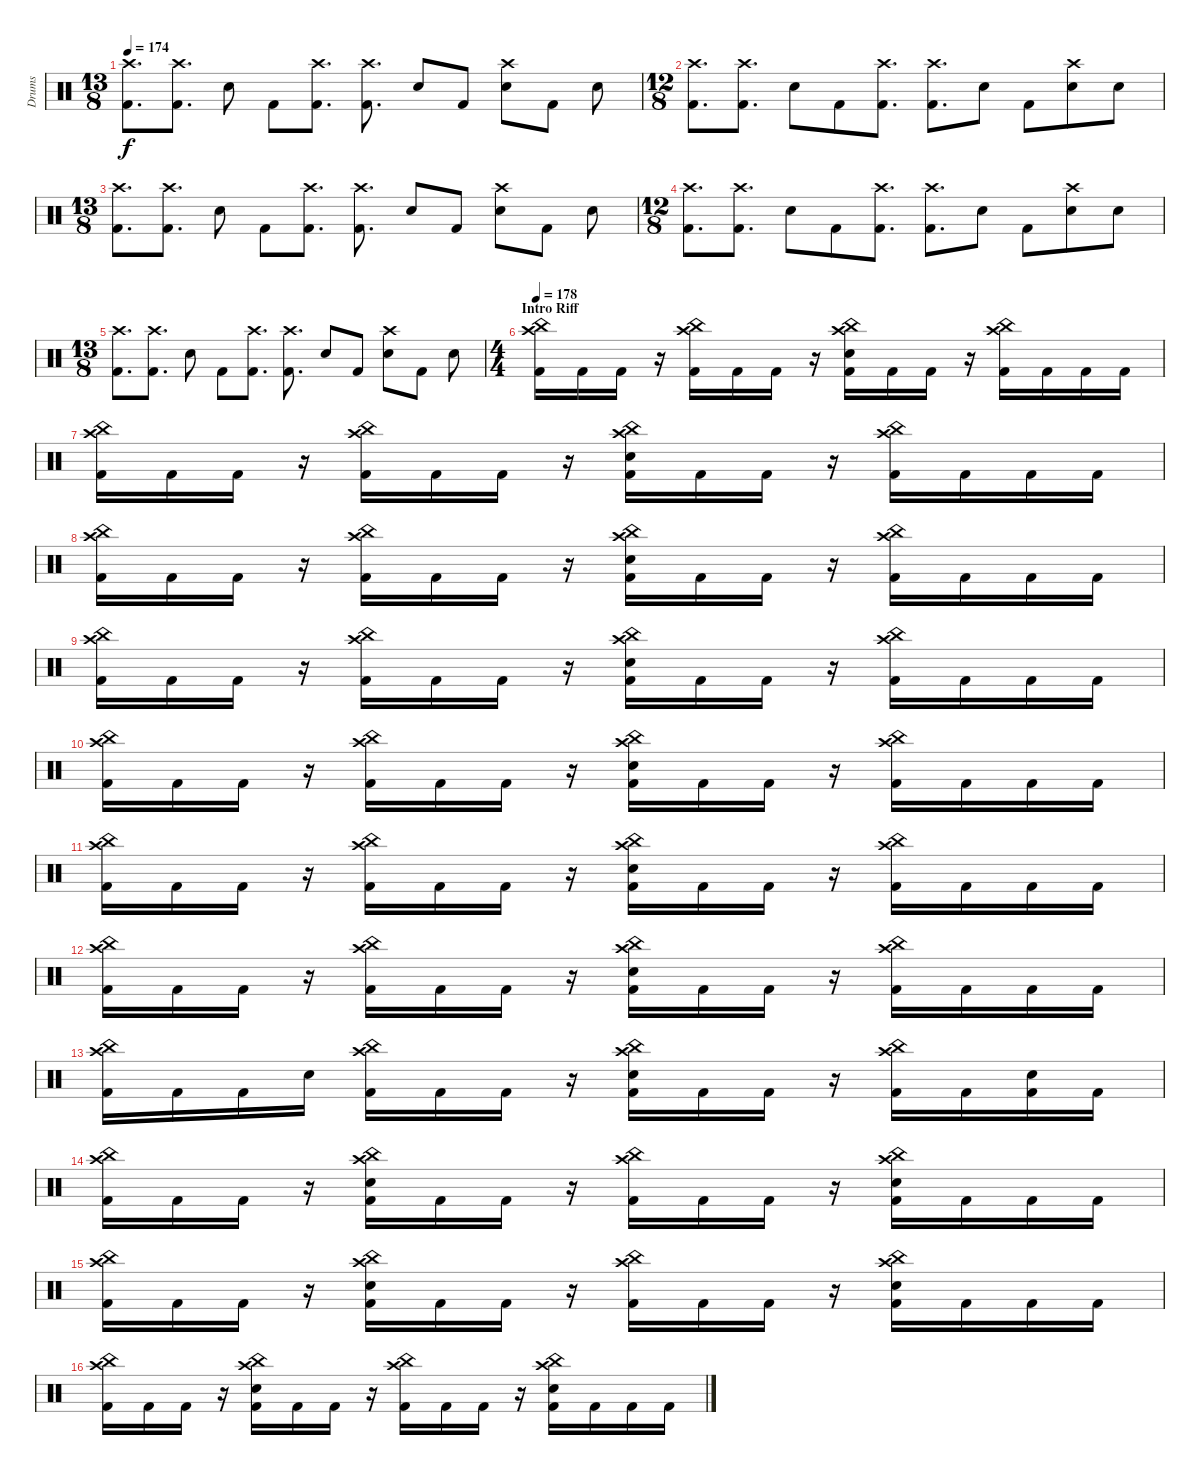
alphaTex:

\track ("Drums" "Drums") {instrument percussion}
\staff {score}
\articulation defaults
\ts (13 8)
\tempo 174
\clef neutral
\ks c
("Crash high (hit)" "Kick (hit) 2").8{d dy f} ("Crash high (hit)" "Kick (hit) 2").8{d} "Electric Snare (hit)".8 "Kick (hit) 2".8 ("Crash high (hit)" "Kick (hit) 2").8{d} ("Crash high (hit)" "Kick (hit) 2").8{d} "Electric Snare (hit)".8 "Kick (hit) 2".8 ("Crash high (hit)" "Electric Snare (hit)").8 "Kick (hit) 2".8 "Electric Snare (hit)".8 |
\ts (12 8)
("Crash high (hit)" "Kick (hit) 2").8{d} ("Crash high (hit)" "Kick (hit) 2").8{d} "Electric Snare (hit)".8 "Kick (hit) 2".8 ("Crash high (hit)" "Kick (hit) 2").8{d} ("Crash high (hit)" "Kick (hit) 2").8{d} "Electric Snare (hit)".8 "Kick (hit) 2".8 ("Crash high (hit)" "Electric Snare (hit)").8 "Electric Snare (hit)".8 |
\ts (13 8)
("Crash high (hit)" "Kick (hit) 2").8{d} ("Crash high (hit)" "Kick (hit) 2").8{d} "Electric Snare (hit)".8 "Kick (hit) 2".8 ("Crash high (hit)" "Kick (hit) 2").8{d} ("Crash high (hit)" "Kick (hit) 2").8{d} "Electric Snare (hit)".8 "Kick (hit) 2".8 ("Crash high (hit)" "Electric Snare (hit)").8 "Kick (hit) 2".8 "Electric Snare (hit)".8 |
\ts (12 8)
("Crash high (hit)" "Kick (hit) 2").8{d} ("Crash high (hit)" "Kick (hit) 2").8{d} "Electric Snare (hit)".8 "Kick (hit) 2".8 ("Crash high (hit)" "Kick (hit) 2").8{d} ("Crash high (hit)" "Kick (hit) 2").8{d} "Electric Snare (hit)".8 "Kick (hit) 2".8 ("Crash high (hit)" "Electric Snare (hit)").8 "Electric Snare (hit)".8 |
\ts (13 8)
("Crash high (hit)" "Kick (hit) 2").8{d} ("Crash high (hit)" "Kick (hit) 2").8{d} "Electric Snare (hit)".8 "Kick (hit) 2".8 ("Crash high (hit)" "Kick (hit) 2").8{d} ("Crash high (hit)" "Kick (hit) 2").8{d} "Electric Snare (hit)".8 "Kick (hit) 2".8 ("Crash high (hit)" "Electric Snare (hit)").8 "Kick (hit) 2".8 "Electric Snare (hit)".8 |
\ts (4 4)
\section ("" "Intro Riff")
\tempo 178
("China (hit)" "Crash high (hit)" "Kick (hit) 2").16 "Kick (hit) 2".16 "Kick (hit) 2".16 r.16 ("China (hit)" "Crash high (hit)" "Kick (hit) 2").16 "Kick (hit) 2".16 "Kick (hit) 2".16 r.16 ("China (hit)" "Crash high (hit)" "Electric Snare (hit)" "Kick (hit) 2").16 "Kick (hit) 2".16 "Kick (hit) 2".16 r.16 ("China (hit)" "Crash high (hit)" "Kick (hit) 2").16 "Kick (hit) 2".16 "Kick (hit) 2".16 "Kick (hit) 2".16 |
("China (hit)" "Crash high (hit)" "Kick (hit) 2").16 "Kick (hit) 2".16 "Kick (hit) 2".16 r.16 ("China (hit)" "Crash high (hit)" "Kick (hit) 2").16 "Kick (hit) 2".16 "Kick (hit) 2".16 r.16 ("China (hit)" "Crash high (hit)" "Electric Snare (hit)" "Kick (hit) 2").16 "Kick (hit) 2".16 "Kick (hit) 2".16 r.16 ("China (hit)" "Crash high (hit)" "Kick (hit) 2").16 "Kick (hit) 2".16 "Kick (hit) 2".16 "Kick (hit) 2".16 |
("China (hit)" "Crash high (hit)" "Kick (hit) 2").16 "Kick (hit) 2".16 "Kick (hit) 2".16 r.16 ("China (hit)" "Crash high (hit)" "Kick (hit) 2").16 "Kick (hit) 2".16 "Kick (hit) 2".16 r.16 ("China (hit)" "Crash high (hit)" "Electric Snare (hit)" "Kick (hit) 2").16 "Kick (hit) 2".16 "Kick (hit) 2".16 r.16 ("China (hit)" "Crash high (hit)" "Kick (hit) 2").16 "Kick (hit) 2".16 "Kick (hit) 2".16 "Kick (hit) 2".16 |
("China (hit)" "Crash high (hit)" "Kick (hit) 2").16 "Kick (hit) 2".16 "Kick (hit) 2".16 r.16 ("China (hit)" "Crash high (hit)" "Kick (hit) 2").16 "Kick (hit) 2".16 "Kick (hit) 2".16 r.16 ("China (hit)" "Crash high (hit)" "Electric Snare (hit)" "Kick (hit) 2").16 "Kick (hit) 2".16 "Kick (hit) 2".16 r.16 ("China (hit)" "Crash high (hit)" "Kick (hit) 2").16 "Kick (hit) 2".16 "Kick (hit) 2".16 "Kick (hit) 2".16 |
("China (hit)" "Crash high (hit)" "Kick (hit) 2").16 "Kick (hit) 2".16 "Kick (hit) 2".16 r.16 ("China (hit)" "Crash high (hit)" "Kick (hit) 2").16 "Kick (hit) 2".16 "Kick (hit) 2".16 r.16 ("China (hit)" "Crash high (hit)" "Electric Snare (hit)" "Kick (hit) 2").16 "Kick (hit) 2".16 "Kick (hit) 2".16 r.16 ("China (hit)" "Crash high (hit)" "Kick (hit) 2").16 "Kick (hit) 2".16 "Kick (hit) 2".16 "Kick (hit) 2".16 |
("China (hit)" "Crash high (hit)" "Kick (hit) 2").16 "Kick (hit) 2".16 "Kick (hit) 2".16 r.16 ("China (hit)" "Crash high (hit)" "Kick (hit) 2").16 "Kick (hit) 2".16 "Kick (hit) 2".16 r.16 ("China (hit)" "Crash high (hit)" "Electric Snare (hit)" "Kick (hit) 2").16 "Kick (hit) 2".16 "Kick (hit) 2".16 r.16 ("China (hit)" "Crash high (hit)" "Kick (hit) 2").16 "Kick (hit) 2".16 "Kick (hit) 2".16 "Kick (hit) 2".16 |
("China (hit)" "Crash high (hit)" "Kick (hit) 2").16 "Kick (hit) 2".16 "Kick (hit) 2".16 r.16 ("China (hit)" "Crash high (hit)" "Kick (hit) 2").16 "Kick (hit) 2".16 "Kick (hit) 2".16 r.16 ("China (hit)" "Crash high (hit)" "Electric Snare (hit)" "Kick (hit) 2").16 "Kick (hit) 2".16 "Kick (hit) 2".16 r.16 ("China (hit)" "Crash high (hit)" "Kick (hit) 2").16 "Kick (hit) 2".16 "Kick (hit) 2".16 "Kick (hit) 2".16 |
("China (hit)" "Crash high (hit)" "Kick (hit) 2").16 "Kick (hit) 2".16 "Kick (hit) 2".16 "Electric Snare (hit)".16 ("China (hit)" "Crash high (hit)" "Kick (hit) 2").16 "Kick (hit) 2".16 "Kick (hit) 2".16 r.16 ("China (hit)" "Crash high (hit)" "Electric Snare (hit)" "Kick (hit) 2").16 "Kick (hit) 2".16 "Kick (hit) 2".16 r.16 ("China (hit)" "Crash high (hit)" "Kick (hit) 2").16 "Kick (hit) 2".16 ("Electric Snare (hit)" "Kick (hit) 2").16 "Kick (hit) 2".16 |
("China (hit)" "Crash high (hit)" "Kick (hit) 2").16 "Kick (hit) 2".16 "Kick (hit) 2".16 r.16 ("China (hit)" "Crash high (hit)" "Electric Snare (hit)" "Kick (hit) 2").16 "Kick (hit) 2".16 "Kick (hit) 2".16 r.16 ("China (hit)" "Crash high (hit)" "Kick (hit) 2").16 "Kick (hit) 2".16 "Kick (hit) 2".16 r.16 ("China (hit)" "Crash high (hit)" "Electric Snare (hit)" "Kick (hit) 2").16 "Kick (hit) 2".16 "Kick (hit) 2".16 "Kick (hit) 2".16 |
("China (hit)" "Crash high (hit)" "Kick (hit) 2").16 "Kick (hit) 2".16 "Kick (hit) 2".16 r.16 ("China (hit)" "Crash high (hit)" "Electric Snare (hit)" "Kick (hit) 2").16 "Kick (hit) 2".16 "Kick (hit) 2".16 r.16 ("China (hit)" "Crash high (hit)" "Kick (hit) 2").16 "Kick (hit) 2".16 "Kick (hit) 2".16 r.16 ("China (hit)" "Crash high (hit)" "Electric Snare (hit)" "Kick (hit) 2").16 "Kick (hit) 2".16 "Kick (hit) 2".16 "Kick (hit) 2".16 |
("China (hit)" "Crash high (hit)" "Kick (hit) 2").16 "Kick (hit) 2".16 "Kick (hit) 2".16 r.16 ("China (hit)" "Crash high (hit)" "Electric Snare (hit)" "Kick (hit) 2").16 "Kick (hit) 2".16 "Kick (hit) 2".16 r.16 ("China (hit)" "Crash high (hit)" "Kick (hit) 2").16 "Kick (hit) 2".16 "Kick (hit) 2".16 r.16 ("China (hit)" "Crash high (hit)" "Electric Snare (hit)" "Kick (hit) 2").16 "Kick (hit) 2".16 "Kick (hit) 2".16 "Kick (hit) 2".16
